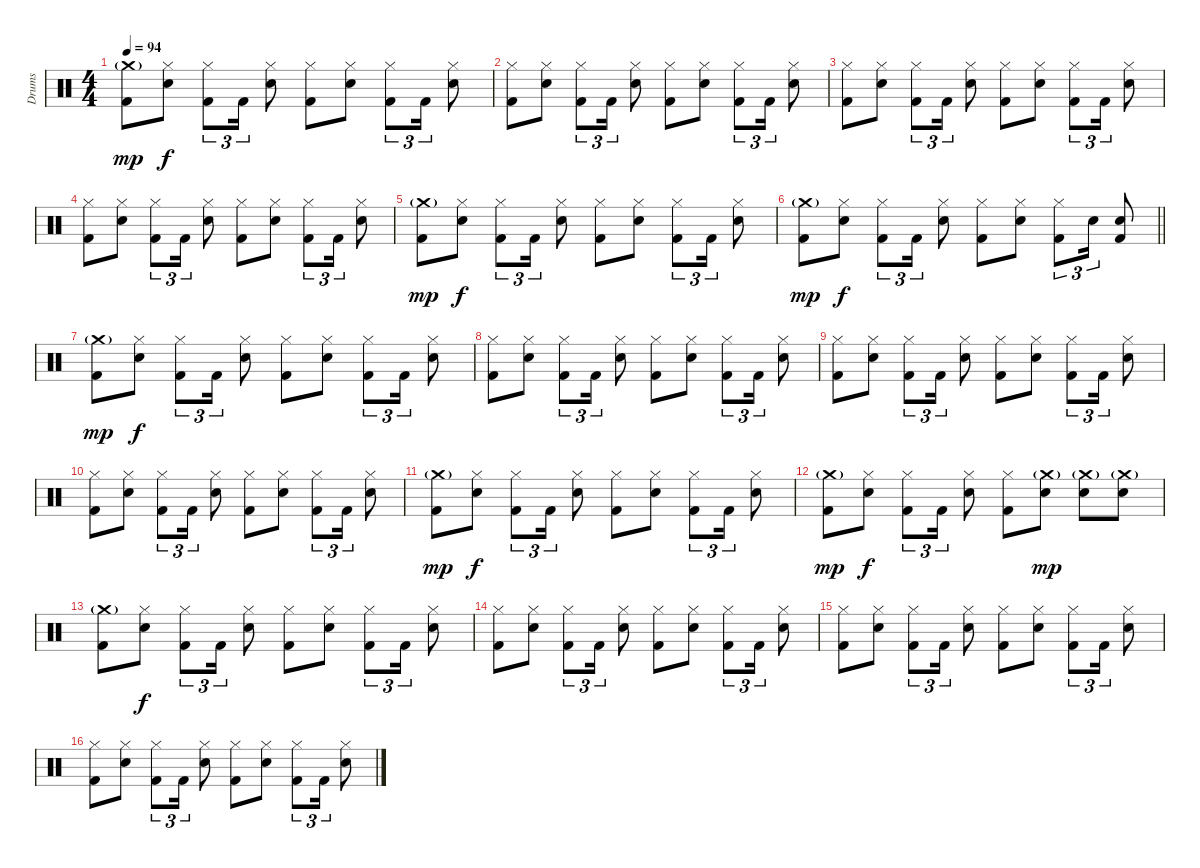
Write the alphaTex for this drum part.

\track ("Drums" "Drums") {instrument percussion}
\staff {score}
\articulation defaults
\ts (4 4)
\tempo 94
\clef neutral
\ks c
("Crash medium (hit)"{g} "Kick (hit) 2").8{dy mp} ("Hi-Hat (closed)" "Electric Snare (hit)").8{dy f} ("Hi-Hat (closed)" "Kick (hit) 2").8{tu (3 2)} "Kick (hit) 2".16{tu (3 2)} ("Hi-Hat (closed)" "Electric Snare (hit)").8 ("Hi-Hat (closed)" "Kick (hit) 2").8 ("Hi-Hat (closed)" "Electric Snare (hit)").8 ("Hi-Hat (closed)" "Kick (hit) 2").8{tu (3 2)} "Kick (hit) 2".16{tu (3 2)} ("Hi-Hat (closed)" "Electric Snare (hit)").8 |
("Hi-Hat (closed)" "Kick (hit) 2").8 ("Hi-Hat (closed)" "Electric Snare (hit)").8 ("Hi-Hat (closed)" "Kick (hit) 2").8{tu (3 2)} "Kick (hit) 2".16{tu (3 2)} ("Hi-Hat (closed)" "Electric Snare (hit)").8 ("Hi-Hat (closed)" "Kick (hit) 2").8 ("Hi-Hat (closed)" "Electric Snare (hit)").8 ("Hi-Hat (closed)" "Kick (hit) 2").8{tu (3 2)} "Kick (hit) 2".16{tu (3 2)} ("Hi-Hat (closed)" "Electric Snare (hit)").8 |
("Hi-Hat (closed)" "Kick (hit) 2").8 ("Hi-Hat (closed)" "Electric Snare (hit)").8 ("Hi-Hat (closed)" "Kick (hit) 2").8{tu (3 2)} "Kick (hit) 2".16{tu (3 2)} ("Hi-Hat (closed)" "Electric Snare (hit)").8 ("Hi-Hat (closed)" "Kick (hit) 2").8 ("Hi-Hat (closed)" "Electric Snare (hit)").8 ("Hi-Hat (closed)" "Kick (hit) 2").8{tu (3 2)} "Kick (hit) 2".16{tu (3 2)} ("Hi-Hat (closed)" "Electric Snare (hit)").8 |
("Hi-Hat (closed)" "Kick (hit) 2").8 ("Hi-Hat (closed)" "Electric Snare (hit)").8 ("Hi-Hat (closed)" "Kick (hit) 2").8{tu (3 2)} "Kick (hit) 2".16{tu (3 2)} ("Hi-Hat (closed)" "Electric Snare (hit)").8 ("Hi-Hat (closed)" "Kick (hit) 2").8 ("Hi-Hat (closed)" "Electric Snare (hit)").8 ("Hi-Hat (closed)" "Kick (hit) 2").8{tu (3 2)} "Kick (hit) 2".16{tu (3 2)} ("Hi-Hat (closed)" "Electric Snare (hit)").8 |
("Crash medium (hit)"{g} "Kick (hit) 2").8{dy mp} ("Hi-Hat (closed)" "Electric Snare (hit)").8{dy f} ("Hi-Hat (closed)" "Kick (hit) 2").8{tu (3 2)} "Kick (hit) 2".16{tu (3 2)} ("Hi-Hat (closed)" "Electric Snare (hit)").8 ("Hi-Hat (closed)" "Kick (hit) 2").8 ("Hi-Hat (closed)" "Electric Snare (hit)").8 ("Hi-Hat (closed)" "Kick (hit) 2").8{tu (3 2)} "Kick (hit) 2".16{tu (3 2)} ("Hi-Hat (closed)" "Electric Snare (hit)").8 |
\barLineRight lightlight
("Crash medium (hit)"{g} "Kick (hit) 2").8{dy mp} ("Hi-Hat (closed)" "Electric Snare (hit)").8{dy f} ("Hi-Hat (closed)" "Kick (hit) 2").8{tu (3 2)} "Kick (hit) 2".16{tu (3 2)} ("Hi-Hat (closed)" "Electric Snare (hit)").8 ("Hi-Hat (closed)" "Kick (hit) 2").8 ("Hi-Hat (closed)" "Electric Snare (hit)").8 ("Hi-Hat (closed)" "Kick (hit) 2").8{tu (3 2)} "Electric Snare (hit)".16{tu (3 2)} ("Electric Snare (hit)" "Kick (hit) 2").8 |
\section ("" "")
("Crash medium (hit)"{g} "Kick (hit) 2").8{dy mp} ("Hi-Hat (closed)" "Electric Snare (hit)").8{dy f} ("Hi-Hat (closed)" "Kick (hit) 2").8{tu (3 2)} "Kick (hit) 2".16{tu (3 2)} ("Hi-Hat (closed)" "Electric Snare (hit)").8 ("Hi-Hat (closed)" "Kick (hit) 2").8 ("Hi-Hat (closed)" "Electric Snare (hit)").8 ("Hi-Hat (closed)" "Kick (hit) 2").8{tu (3 2)} "Kick (hit) 2".16{tu (3 2)} ("Hi-Hat (closed)" "Electric Snare (hit)").8 |
("Hi-Hat (closed)" "Kick (hit) 2").8 ("Hi-Hat (closed)" "Electric Snare (hit)").8 ("Hi-Hat (closed)" "Kick (hit) 2").8{tu (3 2)} "Kick (hit) 2".16{tu (3 2)} ("Hi-Hat (closed)" "Electric Snare (hit)").8 ("Hi-Hat (closed)" "Kick (hit) 2").8 ("Hi-Hat (closed)" "Electric Snare (hit)").8 ("Hi-Hat (closed)" "Kick (hit) 2").8{tu (3 2)} "Kick (hit) 2".16{tu (3 2)} ("Hi-Hat (closed)" "Electric Snare (hit)").8 |
("Hi-Hat (closed)" "Kick (hit) 2").8 ("Hi-Hat (closed)" "Electric Snare (hit)").8 ("Hi-Hat (closed)" "Kick (hit) 2").8{tu (3 2)} "Kick (hit) 2".16{tu (3 2)} ("Hi-Hat (closed)" "Electric Snare (hit)").8 ("Hi-Hat (closed)" "Kick (hit) 2").8 ("Hi-Hat (closed)" "Electric Snare (hit)").8 ("Hi-Hat (closed)" "Kick (hit) 2").8{tu (3 2)} "Kick (hit) 2".16{tu (3 2)} ("Hi-Hat (closed)" "Electric Snare (hit)").8 |
("Hi-Hat (closed)" "Kick (hit) 2").8 ("Hi-Hat (closed)" "Electric Snare (hit)").8 ("Hi-Hat (closed)" "Kick (hit) 2").8{tu (3 2)} "Kick (hit) 2".16{tu (3 2)} ("Hi-Hat (closed)" "Electric Snare (hit)").8 ("Hi-Hat (closed)" "Kick (hit) 2").8 ("Hi-Hat (closed)" "Electric Snare (hit)").8 ("Hi-Hat (closed)" "Kick (hit) 2").8{tu (3 2)} "Kick (hit) 2".16{tu (3 2)} ("Hi-Hat (closed)" "Electric Snare (hit)").8 |
("Crash medium (hit)"{g} "Kick (hit) 2").8{dy mp} ("Hi-Hat (closed)" "Electric Snare (hit)").8{dy f} ("Hi-Hat (closed)" "Kick (hit) 2").8{tu (3 2)} "Kick (hit) 2".16{tu (3 2)} ("Hi-Hat (closed)" "Electric Snare (hit)").8 ("Hi-Hat (closed)" "Kick (hit) 2").8 ("Hi-Hat (closed)" "Electric Snare (hit)").8 ("Hi-Hat (closed)" "Kick (hit) 2").8{tu (3 2)} "Kick (hit) 2".16{tu (3 2)} ("Hi-Hat (closed)" "Electric Snare (hit)").8 |
("Crash medium (hit)"{g} "Kick (hit) 2").8{dy mp} ("Hi-Hat (closed)" "Electric Snare (hit)").8{dy f} ("Hi-Hat (closed)" "Kick (hit) 2").8{tu (3 2)} "Kick (hit) 2".16{tu (3 2)} ("Hi-Hat (closed)" "Electric Snare (hit)").8 ("Hi-Hat (closed)" "Kick (hit) 2").8 ("Crash medium (hit)"{g} "Electric Snare (hit)").8{dy mp} ("Crash medium (hit)"{g} "Electric Snare (hit)").8 ("Crash medium (hit)"{g} "Electric Snare (hit)").8 |
("Crash medium (hit)"{g} "Kick (hit) 2").8 ("Hi-Hat (closed)" "Electric Snare (hit)").8{dy f} ("Hi-Hat (closed)" "Kick (hit) 2").8{tu (3 2)} "Kick (hit) 2".16{tu (3 2)} ("Hi-Hat (closed)" "Electric Snare (hit)").8 ("Hi-Hat (closed)" "Kick (hit) 2").8 ("Hi-Hat (closed)" "Electric Snare (hit)").8 ("Hi-Hat (closed)" "Kick (hit) 2").8{tu (3 2)} "Kick (hit) 2".16{tu (3 2)} ("Hi-Hat (closed)" "Electric Snare (hit)").8 |
("Hi-Hat (closed)" "Kick (hit) 2").8 ("Hi-Hat (closed)" "Electric Snare (hit)").8 ("Hi-Hat (closed)" "Kick (hit) 2").8{tu (3 2)} "Kick (hit) 2".16{tu (3 2)} ("Hi-Hat (closed)" "Electric Snare (hit)").8 ("Hi-Hat (closed)" "Kick (hit) 2").8 ("Hi-Hat (closed)" "Electric Snare (hit)").8 ("Hi-Hat (closed)" "Kick (hit) 2").8{tu (3 2)} "Kick (hit) 2".16{tu (3 2)} ("Hi-Hat (closed)" "Electric Snare (hit)").8 |
("Hi-Hat (closed)" "Kick (hit) 2").8 ("Hi-Hat (closed)" "Electric Snare (hit)").8 ("Hi-Hat (closed)" "Kick (hit) 2").8{tu (3 2)} "Kick (hit) 2".16{tu (3 2)} ("Hi-Hat (closed)" "Electric Snare (hit)").8 ("Hi-Hat (closed)" "Kick (hit) 2").8 ("Hi-Hat (closed)" "Electric Snare (hit)").8 ("Hi-Hat (closed)" "Kick (hit) 2").8{tu (3 2)} "Kick (hit) 2".16{tu (3 2)} ("Hi-Hat (closed)" "Electric Snare (hit)").8 |
("Hi-Hat (closed)" "Kick (hit) 2").8 ("Hi-Hat (closed)" "Electric Snare (hit)").8 ("Hi-Hat (closed)" "Kick (hit) 2").8{tu (3 2)} "Kick (hit) 2".16{tu (3 2)} ("Hi-Hat (closed)" "Electric Snare (hit)").8 ("Hi-Hat (closed)" "Kick (hit) 2").8 ("Hi-Hat (closed)" "Electric Snare (hit)").8 ("Hi-Hat (closed)" "Kick (hit) 2").8{tu (3 2)} "Kick (hit) 2".16{tu (3 2)} ("Hi-Hat (closed)" "Electric Snare (hit)").8
